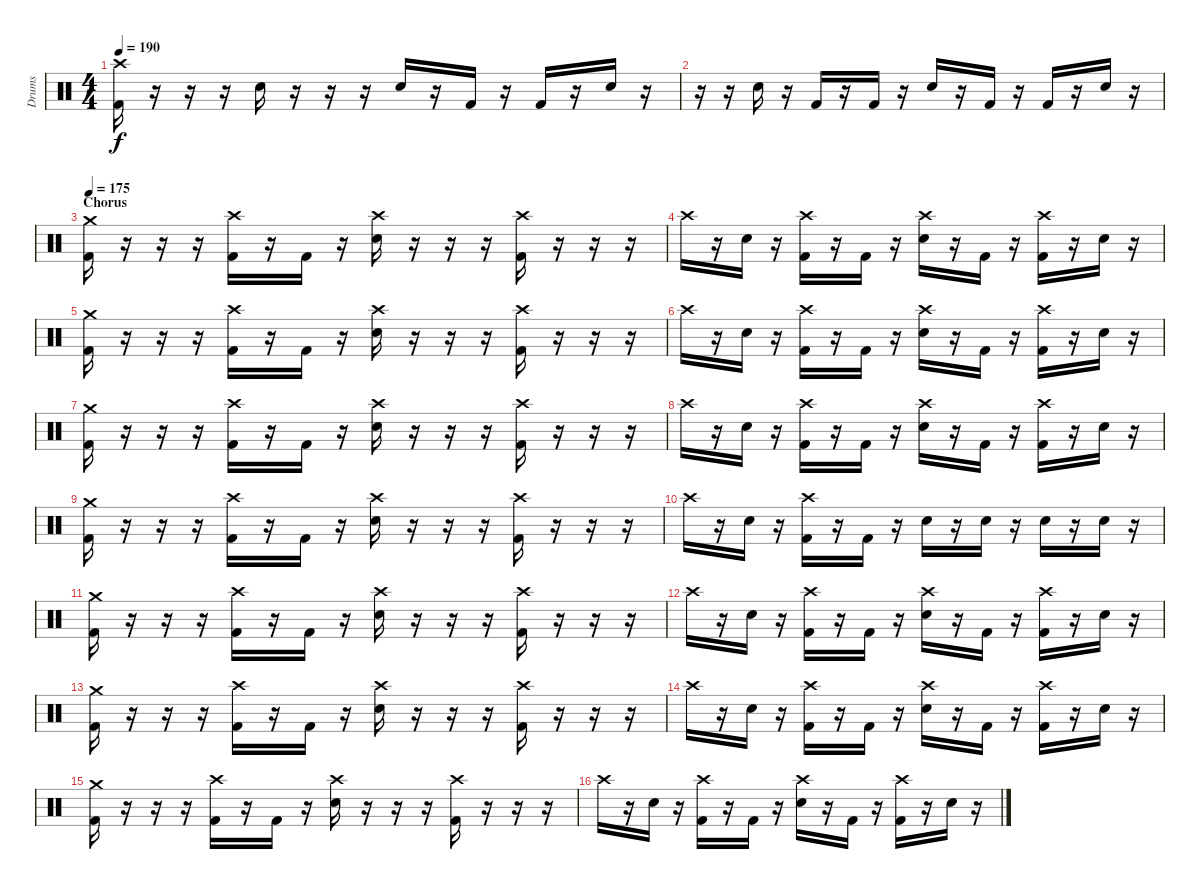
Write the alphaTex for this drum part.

\track ("Drums" "Drums") {instrument percussion}
\staff {score}
\articulation defaults
\ts (4 4)
\tempo 190
\clef neutral
\ks c
("Crash high (hit)" "Kick (hit) 2").16{dy f} r.16 r.16 r.16 "Snare (hit) 2".16 r.16 r.16 r.16 "Snare (hit) 2".16 r.16 "Kick (hit) 2".16 r.16 "Kick (hit) 2".16 r.16 "Snare (hit) 2".16 r.16 |
r.16 r.16 "Snare (hit) 2".16 r.16 "Kick (hit) 2".16 r.16 "Kick (hit) 2".16 r.16 "Snare (hit) 2".16 r.16 "Kick (hit) 2".16 r.16 "Kick (hit) 2".16 r.16 "Snare (hit) 2".16 r.16 |
\section ("" "Chorus")
\tempo 175
("Crash medium (hit)" "Kick (hit) 2").16 r.16 r.16 r.16 ("Crash high (hit)" "Kick (hit) 2").16 r.16 "Kick (hit) 2".16 r.16 ("Crash high (hit)" "Snare (hit) 2").16 r.16 r.16 r.16 ("Crash high (hit)" "Kick (hit) 2").16 r.16 r.16 r.16 |
"Crash high (hit)".16 r.16 "Snare (hit) 2".16 r.16 ("Crash high (hit)" "Kick (hit) 2").16 r.16 "Kick (hit) 2".16 r.16 ("Crash high (hit)" "Snare (hit) 2").16 r.16 "Kick (hit) 2".16 r.16 ("Crash high (hit)" "Kick (hit) 2").16 r.16 "Snare (hit) 2".16 r.16 |
("Crash medium (hit)" "Kick (hit) 2").16 r.16 r.16 r.16 ("Crash high (hit)" "Kick (hit) 2").16 r.16 "Kick (hit) 2".16 r.16 ("Crash high (hit)" "Snare (hit) 2").16 r.16 r.16 r.16 ("Crash high (hit)" "Kick (hit) 2").16 r.16 r.16 r.16 |
"Crash high (hit)".16 r.16 "Snare (hit) 2".16 r.16 ("Crash high (hit)" "Kick (hit) 2").16 r.16 "Kick (hit) 2".16 r.16 ("Crash high (hit)" "Snare (hit) 2").16 r.16 "Kick (hit) 2".16 r.16 ("Crash high (hit)" "Kick (hit) 2").16 r.16 "Snare (hit) 2".16 r.16 |
("Crash medium (hit)" "Kick (hit) 2").16 r.16 r.16 r.16 ("Crash high (hit)" "Kick (hit) 2").16 r.16 "Kick (hit) 2".16 r.16 ("Crash high (hit)" "Snare (hit) 2").16 r.16 r.16 r.16 ("Crash high (hit)" "Kick (hit) 2").16 r.16 r.16 r.16 |
"Crash high (hit)".16 r.16 "Snare (hit) 2".16 r.16 ("Crash high (hit)" "Kick (hit) 2").16 r.16 "Kick (hit) 2".16 r.16 ("Crash high (hit)" "Snare (hit) 2").16 r.16 "Kick (hit) 2".16 r.16 ("Crash high (hit)" "Kick (hit) 2").16 r.16 "Snare (hit) 2".16 r.16 |
("Crash medium (hit)" "Kick (hit) 2").16 r.16 r.16 r.16 ("Crash high (hit)" "Kick (hit) 2").16 r.16 "Kick (hit) 2".16 r.16 ("Crash high (hit)" "Snare (hit) 2").16 r.16 r.16 r.16 ("Crash high (hit)" "Kick (hit) 2").16 r.16 r.16 r.16 |
"Crash high (hit)".16 r.16 "Snare (hit) 2".16 r.16 ("Crash high (hit)" "Kick (hit) 2").16 r.16 "Kick (hit) 2".16 r.16 "Snare (hit) 2".16 r.16 "Snare (hit) 2".16 r.16 "Snare (hit) 2".16 r.16 "Snare (hit) 2".16 r.16 |
("Crash medium (hit)" "Kick (hit) 2").16 r.16 r.16 r.16 ("Crash high (hit)" "Kick (hit) 2").16 r.16 "Kick (hit) 2".16 r.16 ("Crash high (hit)" "Snare (hit) 2").16 r.16 r.16 r.16 ("Crash high (hit)" "Kick (hit) 2").16 r.16 r.16 r.16 |
"Crash high (hit)".16 r.16 "Snare (hit) 2".16 r.16 ("Crash high (hit)" "Kick (hit) 2").16 r.16 "Kick (hit) 2".16 r.16 ("Crash high (hit)" "Snare (hit) 2").16 r.16 "Kick (hit) 2".16 r.16 ("Crash high (hit)" "Kick (hit) 2").16 r.16 "Snare (hit) 2".16 r.16 |
("Crash medium (hit)" "Kick (hit) 2").16 r.16 r.16 r.16 ("Crash high (hit)" "Kick (hit) 2").16 r.16 "Kick (hit) 2".16 r.16 ("Crash high (hit)" "Snare (hit) 2").16 r.16 r.16 r.16 ("Crash high (hit)" "Kick (hit) 2").16 r.16 r.16 r.16 |
"Crash high (hit)".16 r.16 "Snare (hit) 2".16 r.16 ("Crash high (hit)" "Kick (hit) 2").16 r.16 "Kick (hit) 2".16 r.16 ("Crash high (hit)" "Snare (hit) 2").16 r.16 "Kick (hit) 2".16 r.16 ("Crash high (hit)" "Kick (hit) 2").16 r.16 "Snare (hit) 2".16 r.16 |
("Crash medium (hit)" "Kick (hit) 2").16 r.16 r.16 r.16 ("Crash high (hit)" "Kick (hit) 2").16 r.16 "Kick (hit) 2".16 r.16 ("Crash high (hit)" "Snare (hit) 2").16 r.16 r.16 r.16 ("Crash high (hit)" "Kick (hit) 2").16 r.16 r.16 r.16 |
"Crash high (hit)".16 r.16 "Snare (hit) 2".16 r.16 ("Crash high (hit)" "Kick (hit) 2").16 r.16 "Kick (hit) 2".16 r.16 ("Crash high (hit)" "Snare (hit) 2").16 r.16 "Kick (hit) 2".16 r.16 ("Crash high (hit)" "Kick (hit) 2").16 r.16 "Snare (hit) 2".16 r.16
